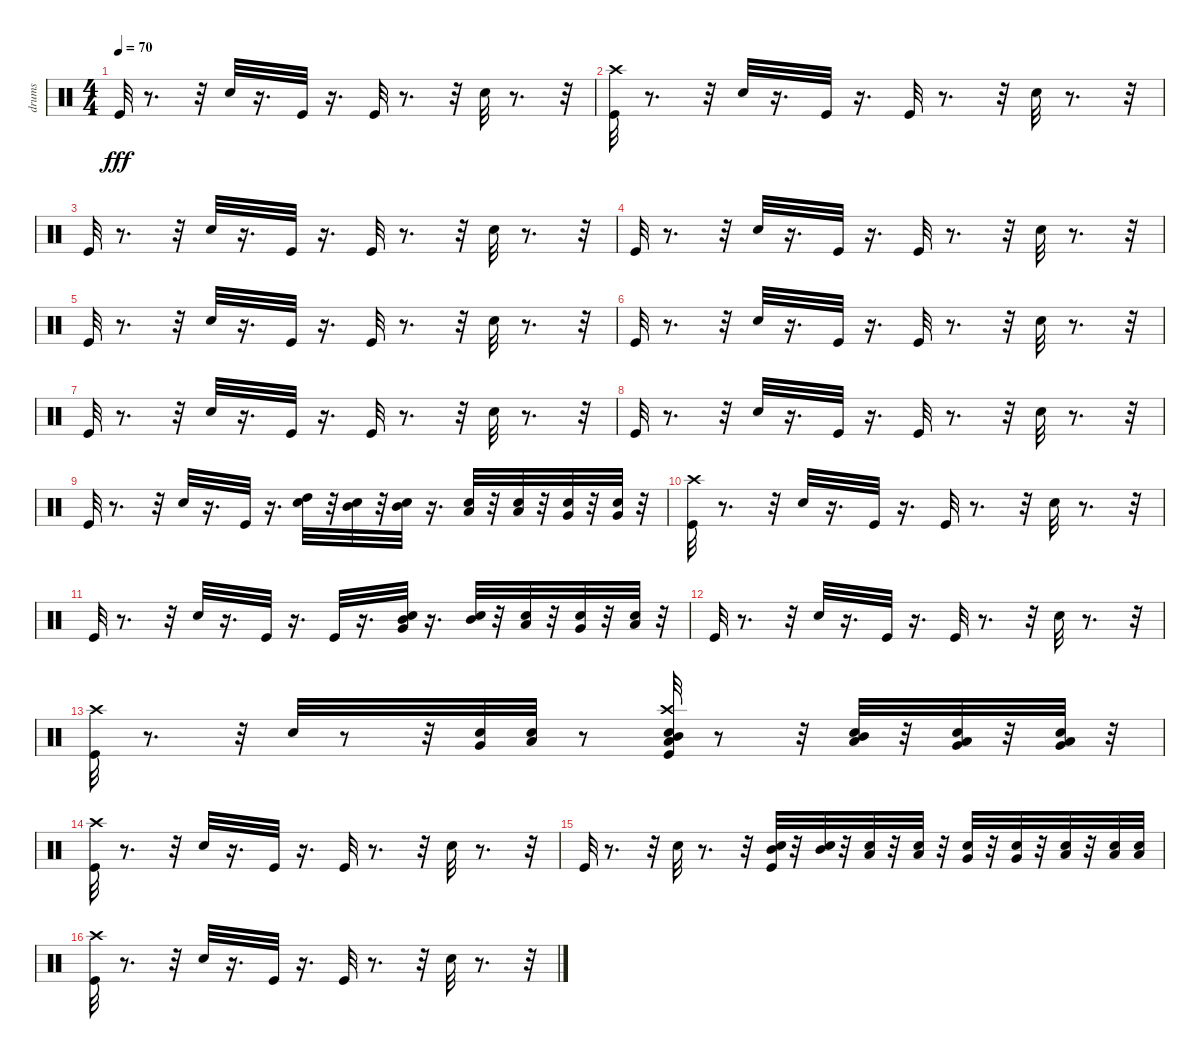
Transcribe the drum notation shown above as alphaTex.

\track ("drums" "drums") {instrument percussion}
\staff {score}
\articulation defaults
\ts (4 4)
\tempo 70
\clef neutral
\ks c "Kick (hit)".32{dy fff}
r.8{d} r.32 "Snare (hit) 2".32 r.16{d} "Kick (hit)".32 r.16{d} "Kick (hit)".32 r.8{d} r.32 "Snare (hit) 2".32 r.8{d} r.32 |
("Kick (hit)" "Crash high (hit)").32 r.8{d} r.32 "Snare (hit) 2".32 r.16{d} "Kick (hit)".32 r.16{d} "Kick (hit)".32 r.8{d} r.32 "Snare (hit) 2".32 r.8{d} r.32 |
"Kick (hit)".32 r.8{d} r.32 "Snare (hit) 2".32 r.16{d} "Kick (hit)".32 r.16{d} "Kick (hit)".32 r.8{d} r.32 "Snare (hit) 2".32 r.8{d} r.32 |
"Kick (hit)".32 r.8{d} r.32 "Snare (hit) 2".32 r.16{d} "Kick (hit)".32 r.16{d} "Kick (hit)".32 r.8{d} r.32 "Snare (hit) 2".32 r.8{d} r.32 |
"Kick (hit)".32 r.8{d} r.32 "Snare (hit) 2".32 r.16{d} "Kick (hit)".32 r.16{d} "Kick (hit)".32 r.8{d} r.32 "Snare (hit) 2".32 r.8{d} r.32 |
"Kick (hit)".32 r.8{d} r.32 "Snare (hit) 2".32 r.16{d} "Kick (hit)".32 r.16{d} "Kick (hit)".32 r.8{d} r.32 "Snare (hit) 2".32 r.8{d} r.32 |
"Kick (hit)".32 r.8{d} r.32 "Snare (hit) 2".32 r.16{d} "Kick (hit)".32 r.16{d} "Kick (hit)".32 r.8{d} r.32 "Snare (hit) 2".32 r.8{d} r.32 |
"Kick (hit)".32 r.8{d} r.32 "Snare (hit) 2".32 r.16{d} "Kick (hit)".32 r.16{d} "Kick (hit)".32 r.8{d} r.32 "Snare (hit) 2".32 r.8{d} r.32 |
"Kick (hit)".32 r.8{d} r.32 "Snare (hit) 2".32 r.16{d} "Kick (hit)".32 r.16{d} ("Snare (hit) 2" "High Tom (hit)").32 r.32 ("Snare (hit) 2" "Mid Tom (hit)").32 r.32 ("Snare (hit) 2" "Mid Tom (hit)").32 r.16{d} ("Snare (hit) 2" "Low Tom (hit)").32 r.32 ("Low Tom (hit)" "Snare (hit) 2").32 r.32 ("Snare (hit) 2" "Very Low Tom (hit)").32 r.32 ("Snare (hit) 2" "Very Low Tom (hit)").32 r.32 |
("Kick (hit)" "Crash high (hit)").32 r.8{d} r.32 "Snare (hit) 2".32 r.16{d} "Kick (hit)".32 r.16{d} "Kick (hit)".32 r.8{d} r.32 "Snare (hit) 2".32 r.8{d} r.32 |
"Kick (hit)".32 r.8{d} r.32 "Snare (hit) 2".32 r.16{d} "Kick (hit)".32 r.16{d} "Kick (hit)".32 r.16{d} ("Snare (hit) 2" "Mid Tom (hit)" "Very Low Tom (hit)").32 r.16{d} ("Snare (hit) 2" "Mid Tom (hit)").32 r.32 ("Low Tom (hit)" "Snare (hit) 2").32 r.32 ("Snare (hit) 2" "Very Low Tom (hit)").32 r.32 ("Snare (hit) 2" "Low Floor Tom (hit)").32 r.32 |
"Kick (hit)".32 r.8{d} r.32 "Snare (hit) 2".32 r.16{d} "Kick (hit)".32 r.16{d} "Kick (hit)".32 r.8{d} r.32 "Snare (hit) 2".32 r.8{d} r.32 |
("Kick (hit)" "Crash high (hit)").32 r.8{d} r.32 "Snare (hit) 2".32 r.8 r.32 ("Snare (hit) 2" "Very Low Tom (hit)").32 ("Snare (hit) 2" "Low Floor Tom (hit)").32 r.8 ("Snare (hit) 2" "Kick (hit)" "Crash high (hit)" "Mid Tom (hit)" "Low Tom (hit)").32 r.8 r.32 ("Snare (hit) 2" "Mid Tom (hit)" "Low Tom (hit)").32 r.32 ("Snare (hit) 2" "Low Tom (hit)" "Very Low Tom (hit)").32 r.32 ("Snare (hit) 2" "Low Floor Tom (hit)" "Very Low Tom (hit)").32 r.32 |
("Kick (hit)" "Crash high (hit)").32 r.8{d} r.32 "Snare (hit) 2".32 r.16{d} "Kick (hit)".32 r.16{d} "Kick (hit)".32 r.8{d} r.32 "Snare (hit) 2".32 r.8{d} r.32 |
"Kick (hit)".32 r.8{d} r.32 "Snare (hit) 2".32 r.8{d} r.32 ("Kick (hit)" "Snare (hit) 2" "Mid Tom (hit)").32 r.32 ("Snare (hit) 2" "Mid Tom (hit)").32 r.32 ("Snare (hit) 2" "Low Tom (hit)").32 r.32 ("Snare (hit) 2" "Low Tom (hit)").32 r.32 ("Snare (hit) 2" "Very Low Tom (hit)").32 r.32 ("Snare (hit) 2" "Very Low Tom (hit)").32 r.32 ("Low Floor Tom (hit)" "Snare (hit) 2").32 r.32 ("Snare (hit) 2" "Low Floor Tom (hit)").32 ("Snare (hit) 2" "Low Floor Tom (hit)").32 |
("Kick (hit)" "Crash high (hit)").32 r.8{d} r.32 "Snare (hit) 2".32 r.16{d} "Kick (hit)".32 r.16{d} "Kick (hit)".32 r.8{d} r.32 "Snare (hit) 2".32 r.8{d} r.32
